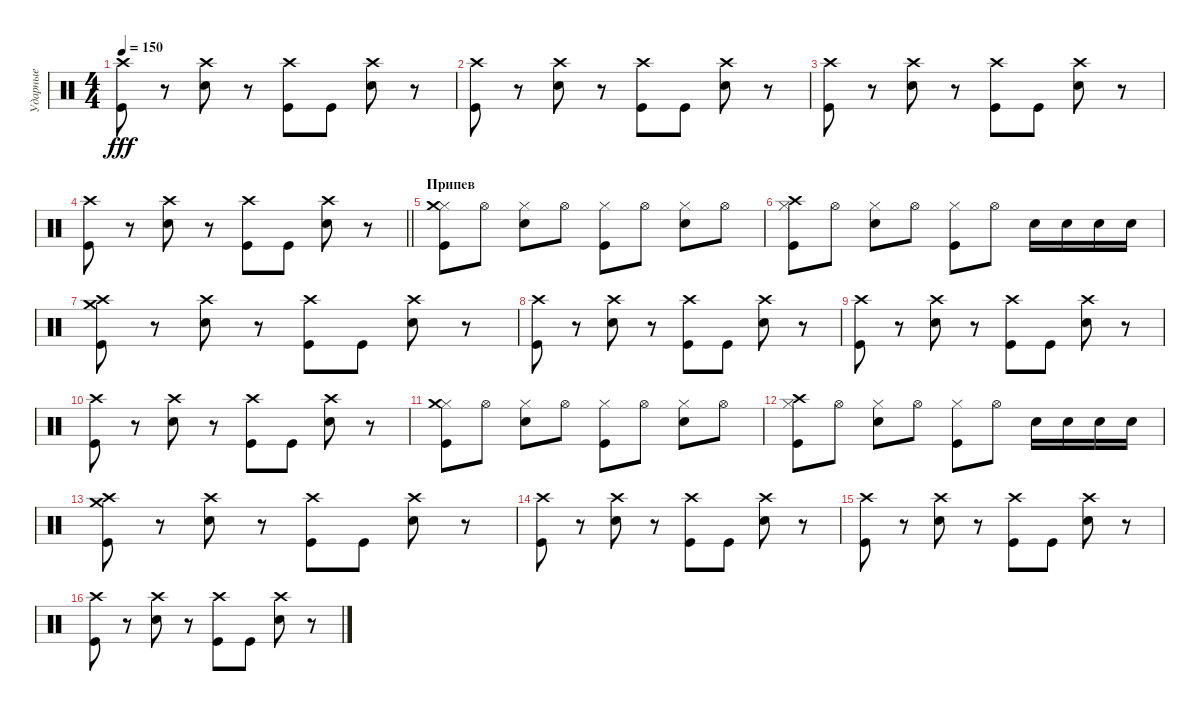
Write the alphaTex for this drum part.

\track ("Ударные" "Ударные") {instrument percussion}
\staff {score}
\articulation defaults
\ts (4 4)
\tempo 150
\clef neutral
\ks c
("Crash high (hit)" "Kick (hit)").8{dy fff} r.8 ("Crash high (hit)" "Electric Snare (hit)").8 r.8 ("Crash high (hit)" "Kick (hit)").8 "Kick (hit)".8 ("Crash high (hit)" "Electric Snare (hit)").8 r.8 |
("Crash high (hit)" "Kick (hit)").8 r.8 ("Crash high (hit)" "Electric Snare (hit)").8 r.8 ("Crash high (hit)" "Kick (hit)").8 "Kick (hit)".8 ("Crash high (hit)" "Electric Snare (hit)").8 r.8 |
("Crash high (hit)" "Kick (hit)").8 r.8 ("Crash high (hit)" "Electric Snare (hit)").8 r.8 ("Crash high (hit)" "Kick (hit)").8 "Kick (hit)".8 ("Crash high (hit)" "Electric Snare (hit)").8 r.8 |
\barLineRight lightlight
("Crash high (hit)" "Kick (hit)").8 r.8 ("Crash high (hit)" "Electric Snare (hit)").8 r.8 ("Crash high (hit)" "Kick (hit)").8 "Kick (hit)".8 ("Crash high (hit)" "Electric Snare (hit)").8 r.8 |
\section ("" "Припев")
("Hi-Hat (closed)" "Kick (hit)" "Crash medium (hit)").8 "Hi-Hat (open)".8 ("Hi-Hat (closed)" "Electric Snare (hit)").8 "Hi-Hat (open)".8 ("Hi-Hat (closed)" "Kick (hit)").8 "Hi-Hat (open)".8 ("Hi-Hat (closed)" "Electric Snare (hit)").8 "Hi-Hat (open)".8 |
("Hi-Hat (closed)" "Kick (hit)" "Crash high (hit)").8 "Hi-Hat (open)".8 ("Hi-Hat (closed)" "Electric Snare (hit)").8 "Hi-Hat (open)".8 ("Hi-Hat (closed)" "Kick (hit)").8 "Hi-Hat (open)".8 "Electric Snare (hit)".16 "Electric Snare (hit)".16 "Electric Snare (hit)".16 "Electric Snare (hit)".16 |
("Crash high (hit)" "Kick (hit)" "Crash medium (hit)").8 r.8 ("Crash high (hit)" "Electric Snare (hit)").8 r.8 ("Crash high (hit)" "Kick (hit)").8 "Kick (hit)".8 ("Crash high (hit)" "Electric Snare (hit)").8 r.8 |
("Crash high (hit)" "Kick (hit)").8 r.8 ("Crash high (hit)" "Electric Snare (hit)").8 r.8 ("Crash high (hit)" "Kick (hit)").8 "Kick (hit)".8 ("Crash high (hit)" "Electric Snare (hit)").8 r.8 |
("Crash high (hit)" "Kick (hit)").8 r.8 ("Crash high (hit)" "Electric Snare (hit)").8 r.8 ("Crash high (hit)" "Kick (hit)").8 "Kick (hit)".8 ("Crash high (hit)" "Electric Snare (hit)").8 r.8 |
("Crash high (hit)" "Kick (hit)").8 r.8 ("Crash high (hit)" "Electric Snare (hit)").8 r.8 ("Crash high (hit)" "Kick (hit)").8 "Kick (hit)".8 ("Crash high (hit)" "Electric Snare (hit)").8 r.8 |
("Hi-Hat (closed)" "Kick (hit)" "Crash medium (hit)").8 "Hi-Hat (open)".8 ("Hi-Hat (closed)" "Electric Snare (hit)").8 "Hi-Hat (open)".8 ("Hi-Hat (closed)" "Kick (hit)").8 "Hi-Hat (open)".8 ("Hi-Hat (closed)" "Electric Snare (hit)").8 "Hi-Hat (open)".8 |
("Hi-Hat (closed)" "Kick (hit)" "Crash high (hit)").8 "Hi-Hat (open)".8 ("Hi-Hat (closed)" "Electric Snare (hit)").8 "Hi-Hat (open)".8 ("Hi-Hat (closed)" "Kick (hit)").8 "Hi-Hat (open)".8 "Electric Snare (hit)".16 "Electric Snare (hit)".16 "Electric Snare (hit)".16 "Electric Snare (hit)".16 |
("Crash high (hit)" "Kick (hit)" "Crash medium (hit)").8 r.8 ("Crash high (hit)" "Electric Snare (hit)").8 r.8 ("Crash high (hit)" "Kick (hit)").8 "Kick (hit)".8 ("Crash high (hit)" "Electric Snare (hit)").8 r.8 |
("Crash high (hit)" "Kick (hit)").8 r.8 ("Crash high (hit)" "Electric Snare (hit)").8 r.8 ("Crash high (hit)" "Kick (hit)").8 "Kick (hit)".8 ("Crash high (hit)" "Electric Snare (hit)").8 r.8 |
("Crash high (hit)" "Kick (hit)").8 r.8 ("Crash high (hit)" "Electric Snare (hit)").8 r.8 ("Crash high (hit)" "Kick (hit)").8 "Kick (hit)".8 ("Crash high (hit)" "Electric Snare (hit)").8 r.8 |
("Crash high (hit)" "Kick (hit)").8 r.8 ("Crash high (hit)" "Electric Snare (hit)").8 r.8 ("Crash high (hit)" "Kick (hit)").8 "Kick (hit)".8 ("Crash high (hit)" "Electric Snare (hit)").8 r.8
